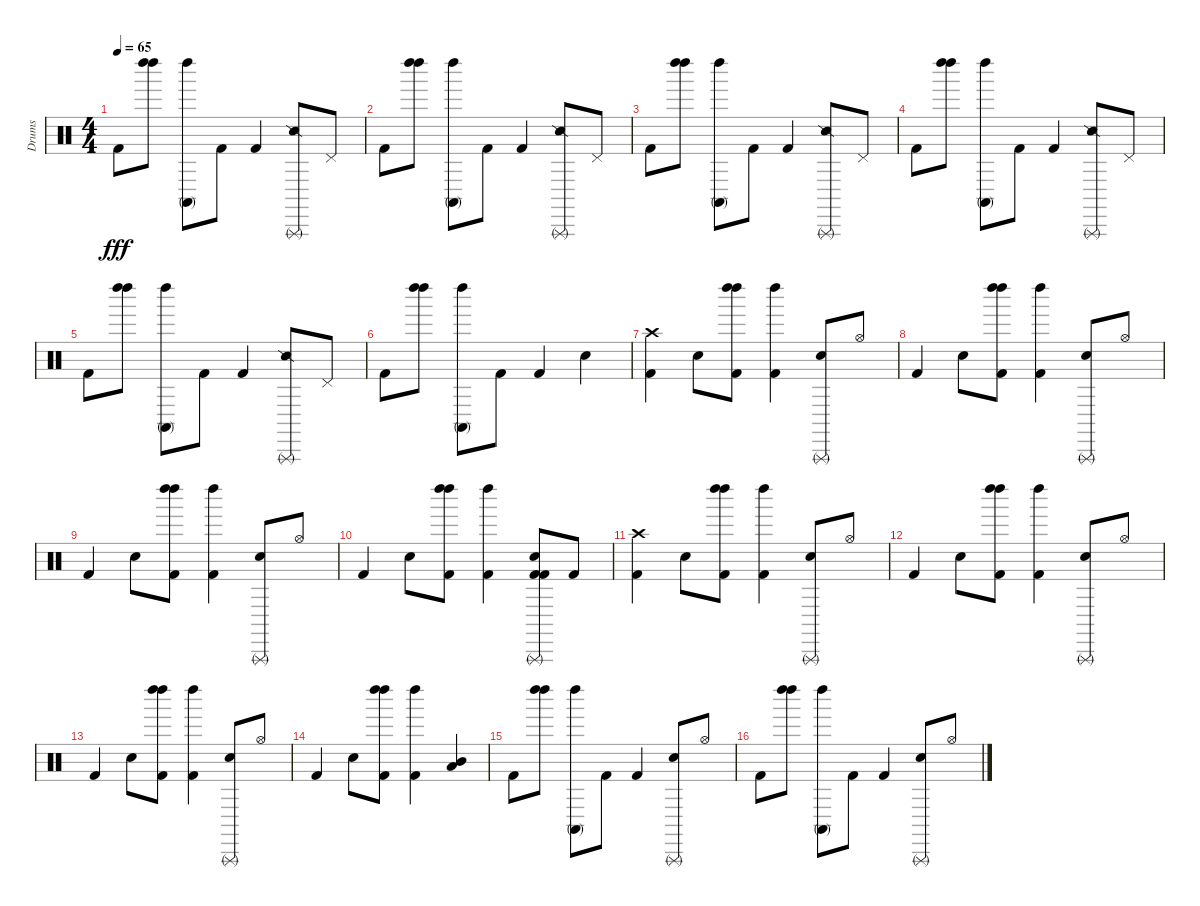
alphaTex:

\track ("Drums" "Drums") {instrument percussion}
\staff {score}
\articulation defaults
\ts (4 4)
\tempo 65
\clef neutral
\ks c "Kick (hit) 2".8{dy fff}
("Left Maraca (hit)" "Left Maraca (hit)").8 ("Conga high (mute)" "Left Maraca (hit)").8 "Kick (hit) 2".8 "Kick (hit) 2".4 ("Triangle (rnute)" "Snare (side stick) 2").8 "Pedal Hi-Hat (hit)".8 |
"Kick (hit) 2".8 ("Left Maraca (hit)" "Left Maraca (hit)").8 ("Conga high (mute)" "Left Maraca (hit)").8 "Kick (hit) 2".8 "Kick (hit) 2".4 ("Triangle (rnute)" "Snare (side stick) 2").8 "Pedal Hi-Hat (hit)".8 |
"Kick (hit) 2".8 ("Left Maraca (hit)" "Left Maraca (hit)").8 ("Conga high (mute)" "Left Maraca (hit)").8 "Kick (hit) 2".8 "Kick (hit) 2".4 ("Triangle (rnute)" "Snare (side stick) 2").8 "Pedal Hi-Hat (hit)".8 |
"Kick (hit) 2".8 ("Left Maraca (hit)" "Left Maraca (hit)").8 ("Conga high (mute)" "Left Maraca (hit)").8 "Kick (hit) 2".8 "Kick (hit) 2".4 ("Triangle (rnute)" "Snare (side stick) 2").8 "Pedal Hi-Hat (hit)".8 |
"Kick (hit) 2".8 ("Left Maraca (hit)" "Left Maraca (hit)").8 ("Conga high (mute)" "Left Maraca (hit)").8 "Kick (hit) 2".8 "Kick (hit) 2".4 ("Triangle (rnute)" "Snare (side stick) 2").8 "Pedal Hi-Hat (hit)".8 |
"Kick (hit) 2".8 ("Left Maraca (hit)" "Left Maraca (hit)").8 ("Conga high (mute)" "Left Maraca (hit)").8 "Kick (hit) 2".8 "Kick (hit) 2".4 "Electric Snare (hit)".4 |
("Kick (hit) 2" "Crash high (hit)").4 "Snare (hit) 2".8 ("Left Maraca (hit)" "Kick (hit) 2" "Left Maraca (hit)").8 ("Kick (hit) 2" "Left Maraca (hit)").4 ("Triangle (rnute)" "Electric Snare (hit)").8 "Hi-Hat (open)".8 |
"Kick (hit) 2".4 "Snare (hit) 2".8 ("Left Maraca (hit)" "Kick (hit) 2" "Left Maraca (hit)").8 ("Kick (hit) 2" "Left Maraca (hit)").4 ("Triangle (rnute)" "Electric Snare (hit)").8 "Hi-Hat (open)".8 |
"Kick (hit) 2".4 "Snare (hit) 2".8 ("Left Maraca (hit)" "Kick (hit) 2" "Left Maraca (hit)").8 ("Kick (hit) 2" "Left Maraca (hit)").4 ("Triangle (rnute)" "Electric Snare (hit)").8 "Hi-Hat (open)".8 |
"Kick (hit) 2".4 "Snare (hit) 2".8 ("Left Maraca (hit)" "Kick (hit) 2" "Left Maraca (hit)").8 ("Kick (hit) 2" "Left Maraca (hit)").4 ("Kick (hit) 2" "Triangle (rnute)" "Electric Snare (hit)" "Kick (hit) 2").8 "Kick (hit) 2".8 |
("Kick (hit) 2" "Crash high (hit)").4 "Snare (hit) 2".8 ("Left Maraca (hit)" "Kick (hit) 2" "Left Maraca (hit)").8 ("Kick (hit) 2" "Left Maraca (hit)").4 ("Triangle (rnute)" "Electric Snare (hit)").8 "Hi-Hat (open)".8 |
"Kick (hit) 2".4 "Snare (hit) 2".8 ("Left Maraca (hit)" "Kick (hit) 2" "Left Maraca (hit)").8 ("Kick (hit) 2" "Left Maraca (hit)").4 ("Triangle (rnute)" "Electric Snare (hit)").8 "Hi-Hat (open)".8 |
"Kick (hit) 2".4 "Snare (hit) 2".8 ("Left Maraca (hit)" "Kick (hit) 2" "Left Maraca (hit)").8 ("Kick (hit) 2" "Left Maraca (hit)").4 ("Triangle (rnute)" "Electric Snare (hit)").8 "Hi-Hat (open)".8 |
"Kick (hit) 2".4 "Snare (hit) 2".8 ("Left Maraca (hit)" "Kick (hit) 2" "Left Maraca (hit)").8 ("Kick (hit) 2" "Left Maraca (hit)").4 ("Mid Tom (hit)" "Low Tom (hit)").4 |
"Kick (hit) 2".8 ("Left Maraca (hit)" "Left Maraca (hit)").8 ("Conga high (mute)" "Left Maraca (hit)").8 "Kick (hit) 2".8 "Kick (hit) 2".4 ("Triangle (rnute)" "Electric Snare (hit)").8 "Hi-Hat (open)".8 |
"Kick (hit) 2".8 ("Left Maraca (hit)" "Left Maraca (hit)").8 ("Conga high (mute)" "Left Maraca (hit)").8 "Kick (hit) 2".8 "Kick (hit) 2".4 ("Triangle (rnute)" "Electric Snare (hit)").8 "Hi-Hat (open)".8
